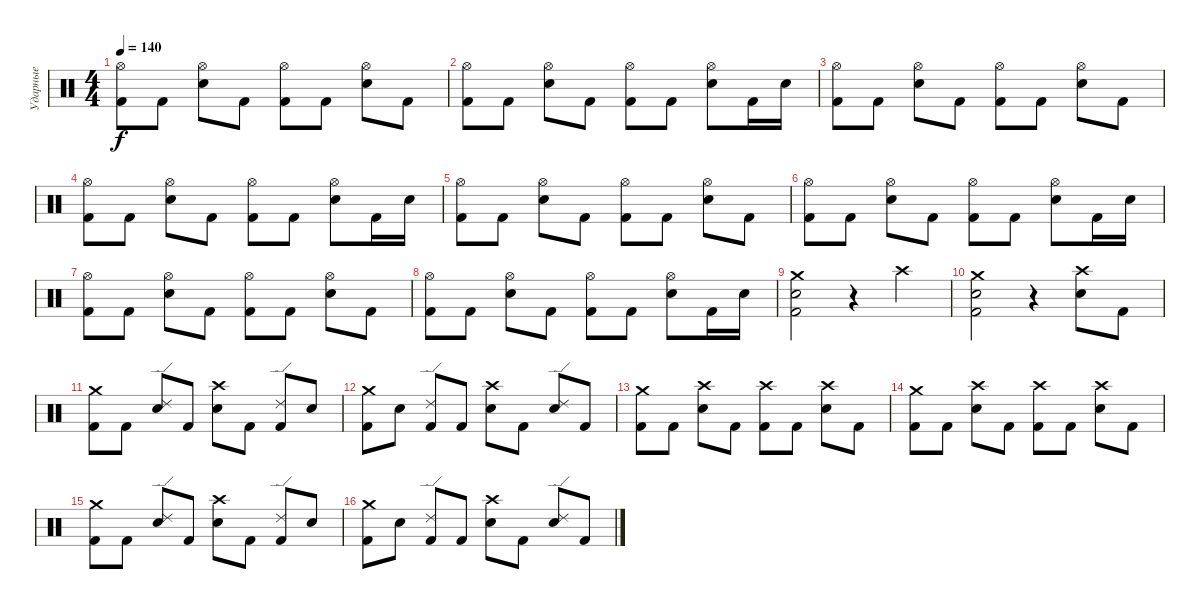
\track ("Ударные" "Ударные") {instrument percussion}
\staff {score}
\articulation defaults
\ts (4 4)
\tempo 140
\clef neutral
\ks c
("Hi-Hat (open)" "Kick (hit) 2").8{dy f} "Kick (hit) 2".8 ("Hi-Hat (open)" "Electric Snare (hit)").8 "Kick (hit) 2".8 ("Hi-Hat (open)" "Kick (hit) 2").8 "Kick (hit) 2".8 ("Hi-Hat (open)" "Electric Snare (hit)").8 "Kick (hit) 2".8 |
("Hi-Hat (open)" "Kick (hit) 2").8 "Kick (hit) 2".8 ("Hi-Hat (open)" "Electric Snare (hit)").8 "Kick (hit) 2".8 ("Hi-Hat (open)" "Kick (hit) 2").8 "Kick (hit) 2".8 ("Hi-Hat (open)" "Electric Snare (hit)").8 "Kick (hit) 2".16 "Electric Snare (hit)".16 |
("Hi-Hat (open)" "Kick (hit) 2").8 "Kick (hit) 2".8 ("Hi-Hat (open)" "Electric Snare (hit)").8 "Kick (hit) 2".8 ("Hi-Hat (open)" "Kick (hit) 2").8 "Kick (hit) 2".8 ("Hi-Hat (open)" "Electric Snare (hit)").8 "Kick (hit) 2".8 |
("Hi-Hat (open)" "Kick (hit) 2").8 "Kick (hit) 2".8 ("Hi-Hat (open)" "Electric Snare (hit)").8 "Kick (hit) 2".8 ("Hi-Hat (open)" "Kick (hit) 2").8 "Kick (hit) 2".8 ("Hi-Hat (open)" "Electric Snare (hit)").8 "Kick (hit) 2".16 "Electric Snare (hit)".16 |
("Hi-Hat (open)" "Kick (hit) 2").8 "Kick (hit) 2".8 ("Hi-Hat (open)" "Electric Snare (hit)").8 "Kick (hit) 2".8 ("Hi-Hat (open)" "Kick (hit) 2").8 "Kick (hit) 2".8 ("Hi-Hat (open)" "Electric Snare (hit)").8 "Kick (hit) 2".8 |
("Hi-Hat (open)" "Kick (hit) 2").8 "Kick (hit) 2".8 ("Hi-Hat (open)" "Electric Snare (hit)").8 "Kick (hit) 2".8 ("Hi-Hat (open)" "Kick (hit) 2").8 "Kick (hit) 2".8 ("Hi-Hat (open)" "Electric Snare (hit)").8 "Kick (hit) 2".16 "Electric Snare (hit)".16 |
("Hi-Hat (open)" "Kick (hit) 2").8 "Kick (hit) 2".8 ("Hi-Hat (open)" "Electric Snare (hit)").8 "Kick (hit) 2".8 ("Hi-Hat (open)" "Kick (hit) 2").8 "Kick (hit) 2".8 ("Hi-Hat (open)" "Electric Snare (hit)").8 "Kick (hit) 2".8 |
("Hi-Hat (open)" "Kick (hit) 2").8 "Kick (hit) 2".8 ("Hi-Hat (open)" "Electric Snare (hit)").8 "Kick (hit) 2".8 ("Hi-Hat (open)" "Kick (hit) 2").8 "Kick (hit) 2".8 ("Hi-Hat (open)" "Electric Snare (hit)").8 "Kick (hit) 2".16 "Electric Snare (hit)".16 |
("Crash medium (hit)" "Electric Snare (hit)" "Kick (hit) 2").2 r.4 "Crash high (hit)".4 |
("Crash medium (hit)" "Electric Snare (hit)" "Kick (hit) 2").2 r.4 ("Crash high (hit)" "Electric Snare (hit)").8 "Kick (hit) 2".8 |
("Crash medium (hit)" "Kick (hit) 2").8 "Kick (hit) 2".8 ("Ride (edge) 2" "Electric Snare (hit)").8 "Kick (hit) 2".8 ("Crash high (hit)" "Electric Snare (hit)").8 "Kick (hit) 2".8 ("Ride (edge) 2" "Kick (hit) 2").8 "Electric Snare (hit)".8 |
("Crash medium (hit)" "Kick (hit) 2").8 "Electric Snare (hit)".8 ("Ride (edge) 2" "Kick (hit) 2").8 "Kick (hit) 2".8 ("Crash high (hit)" "Electric Snare (hit)").8 "Kick (hit) 2".8 ("Ride (edge) 2" "Electric Snare (hit)").8 "Kick (hit) 2".8 |
("Crash medium (hit)" "Kick (hit) 2").8 "Kick (hit) 2".8 ("Crash high (hit)" "Electric Snare (hit)").8 "Kick (hit) 2".8 ("Crash high (hit)" "Kick (hit) 2").8 "Kick (hit) 2".8 ("Crash high (hit)" "Electric Snare (hit)").8 "Kick (hit) 2".8 |
("Crash medium (hit)" "Kick (hit) 2").8 "Kick (hit) 2".8 ("Crash high (hit)" "Electric Snare (hit)").8 "Kick (hit) 2".8 ("Crash high (hit)" "Kick (hit) 2").8 "Kick (hit) 2".8 ("Crash high (hit)" "Electric Snare (hit)").8 "Kick (hit) 2".8 |
("Crash medium (hit)" "Kick (hit) 2").8 "Kick (hit) 2".8 ("Ride (edge) 2" "Electric Snare (hit)").8 "Kick (hit) 2".8 ("Crash high (hit)" "Electric Snare (hit)").8 "Kick (hit) 2".8 ("Ride (edge) 2" "Kick (hit) 2").8 "Electric Snare (hit)".8 |
("Crash medium (hit)" "Kick (hit) 2").8 "Electric Snare (hit)".8 ("Ride (edge) 2" "Kick (hit) 2").8 "Kick (hit) 2".8 ("Crash high (hit)" "Electric Snare (hit)").8 "Kick (hit) 2".8 ("Ride (edge) 2" "Electric Snare (hit)").8 "Kick (hit) 2".8
